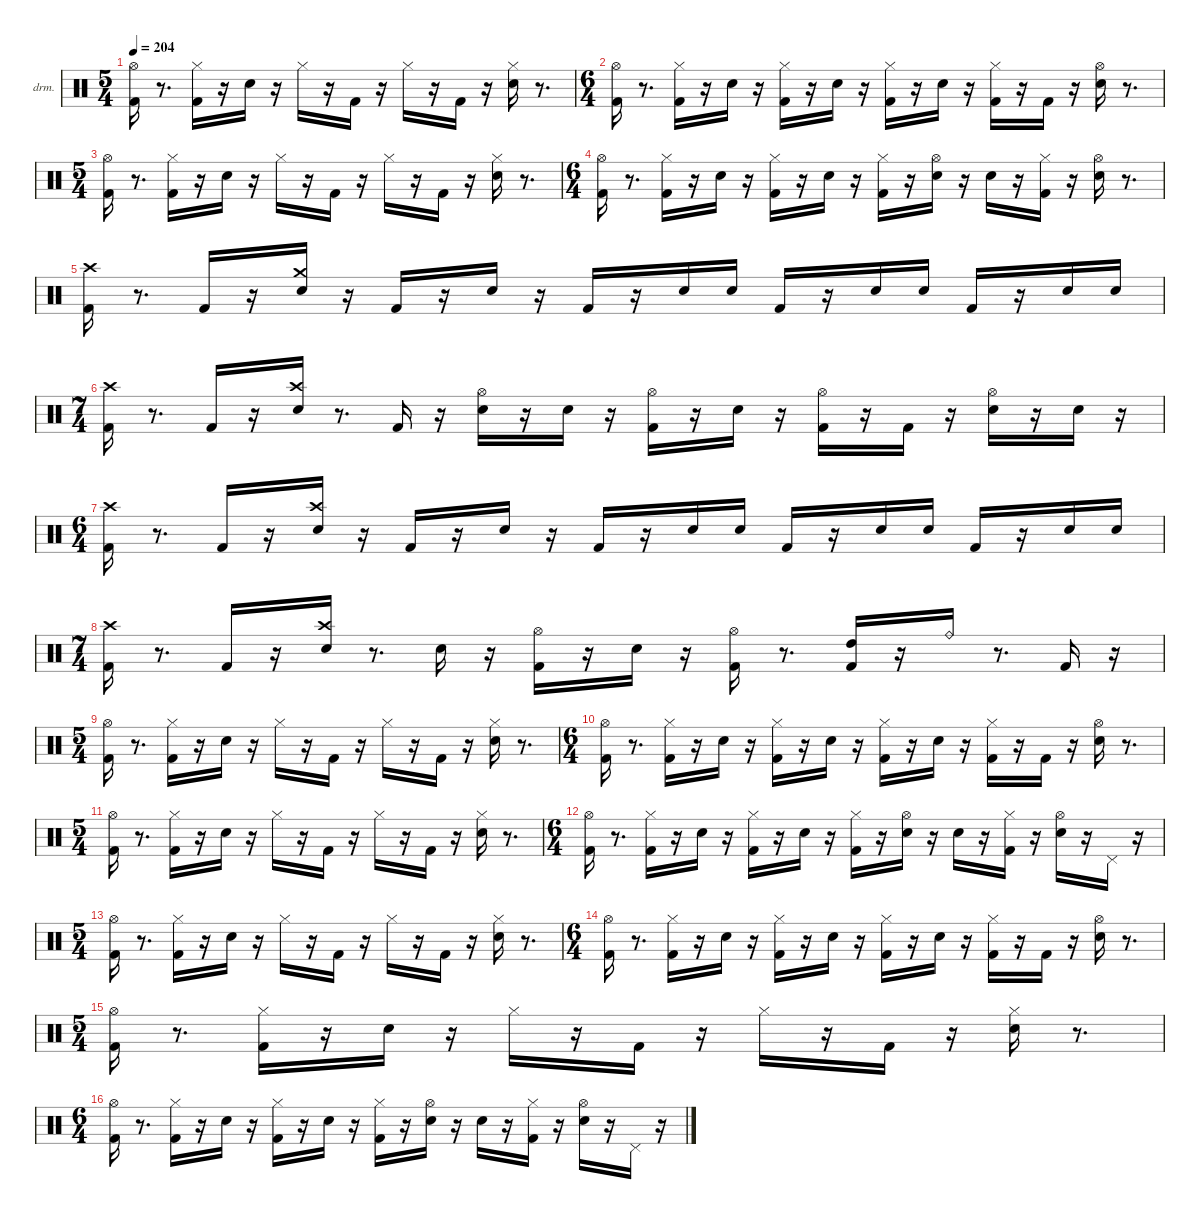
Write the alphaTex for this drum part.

\hideDynamics
\bracketExtendMode nobrackets
\firstSystemTrackNameOrientation horizontal
\otherSystemsTrackNameOrientation horizontal
\track ("drums" "drm.") {instrument percussion}
\staff {score}
\articulation defaults
\ts (5 4)
\tempo 204
\clef neutral
\ks aminor
("Kick (hit) 2" "Hi-Hat (open)"{acc #}).16{dy ff beam Down} r.8{d beam Down} ("Kick (hit) 2" "Hi-Hat (closed)"{acc #}).16{beam Down} r.16{beam Down} "Snare (hit) 2".16{dy f beam Down} r.16{beam Down} "Hi-Hat (closed)"{acc #}.16{dy ff beam Down} r.16{beam Down} "Kick (hit) 2".16{beam Up} r.16{beam Up} "Hi-Hat (closed)"{acc #}.16{dy f beam Down} r.16{beam Down} "Kick (hit) 2".16{dy ff beam Up} r.16{beam Up} ("Snare (hit) 2" "Hi-Hat (closed)"{acc #}).16{dy f beam Down} r.8{d beam Down} |
\ts (6 4)
("Kick (hit) 2" "Hi-Hat (open)"{acc #}).16{dy ff beam Down} r.8{d beam Down} ("Kick (hit) 2" "Hi-Hat (closed)"{acc #}).16{beam Down} r.16{beam Down} "Snare (hit) 2".16{dy f beam Down} r.16{beam Down} ("Kick (hit) 2" "Hi-Hat (closed)"{acc #}).16{dy ff beam Down} r.16{beam Down} "Snare (hit) 2".16{beam Down} r.16{beam Down} ("Kick (hit) 2" "Hi-Hat (closed)"{acc #}).16{beam Down} r.16{beam Down} "Snare (hit) 2".16{dy mf beam Down} r.16{beam Down} ("Kick (hit) 2" "Hi-Hat (closed)"{acc #}).16{dy f beam Down} r.16{beam Down} "Kick (hit) 2".16{dy ff beam Up} r.16{beam Up} ("Snare (hit) 2" "Hi-Hat (open)"{acc #}).16{beam Down} r.8{d beam Down} |
\ts (5 4)
("Kick (hit) 2" "Hi-Hat (open)"{acc #}).16{beam Down} r.8{d beam Down} ("Kick (hit) 2" "Hi-Hat (closed)"{acc #}).16{beam Down} r.16{beam Down} "Snare (hit) 2".16{dy f beam Down} r.16{beam Down} "Hi-Hat (closed)"{acc #}.16{dy ff beam Down} r.16{beam Down} "Kick (hit) 2".16{beam Up} r.16{beam Up} "Hi-Hat (closed)"{acc #}.16{dy f beam Down} r.16{beam Down} "Kick (hit) 2".16{dy ff beam Up} r.16{beam Up} ("Snare (hit) 2" "Hi-Hat (closed)"{acc #}).16{beam Down} r.8{d beam Down} |
\ts (6 4)
("Kick (hit) 2" "Hi-Hat (open)"{acc #}).16{beam Down} r.8{d beam Down} ("Kick (hit) 2" "Hi-Hat (closed)"{acc #}).16{beam Down} r.16{beam Down} "Snare (hit) 2".16{dy f beam Down} r.16{beam Down} ("Kick (hit) 2" "Hi-Hat (closed)"{acc #}).16{dy ff beam Down} r.16{beam Down} "Snare (hit) 2".16{beam Down} r.16{beam Down} ("Kick (hit) 2" "Hi-Hat (closed)"{acc #}).16{beam Down} r.16{beam Down} ("Snare (hit) 2" "Hi-Hat (open)"{acc #}).16{beam Down} r.16{beam Down} "Snare (hit) 2".16{dy mf beam Down} r.16{beam Down} ("Kick (hit) 2" "Hi-Hat (closed)"{acc #}).16{dy ff beam Down} r.16{beam Down} ("Snare (hit) 2" "Hi-Hat (open)"{acc #}).16{beam Down} r.8{d beam Down} |
("Kick (hit) 2" "Crash high (hit)"{acc #}).16{beam Down} r.8{d beam Down} "Kick (hit) 2".16{beam Up} r.16{beam Up} ("Snare (hit) 2" "Crash medium (hit)").16{dy f beam Down} r.16{beam Down} "Kick (hit) 2".16{dy ff beam Up} r.16{beam Up} "Snare (hit) 2".16{beam Down} r.16{beam Down} "Kick (hit) 2".16{beam Up} r.16{beam Up} "Snare (hit) 2".16{dy f beam Up} "Snare (hit) 2".16{dy p beam Up} "Kick (hit) 2".16{dy ff beam Up} r.16{beam Up} "Snare (hit) 2".16{dy f beam Up} "Snare (hit) 2".16{dy p beam Up} "Kick (hit) 2".16{dy ff beam Up} r.16{beam Up} "Snare (hit) 2".16{beam Down} "Snare (hit) 2".16{dy p beam Down} |
\ts (7 4)
("Kick (hit) 2" "Crash high (hit)"{acc #}).16{dy ff beam Down} r.8{d beam Down} "Kick (hit) 2".16{beam Up} r.16{beam Up} ("Snare (hit) 2" "Crash high (hit)"{acc #}).16{dy f beam Down} r.8{d beam Down} "Kick (hit) 2".16{dy ff beam Up} r.16{beam Up} ("Snare (hit) 2" "Hi-Hat (open)"{acc #}).16{beam Down} r.16{beam Down} "Snare (hit) 2".16{dy pp beam Down} r.16{beam Down} ("Kick (hit) 2" "Hi-Hat (open)"{acc #}).16{dy ff beam Down} r.16{beam Down} "Snare (hit) 2".16{beam Down} r.16{beam Down} ("Kick (hit) 2" "Hi-Hat (open)"{acc #}).16{dy f beam Down} r.16{beam Down} "Kick (hit) 2".16{dy fff beam Up} r.16{beam Up} ("Snare (hit) 2" "Hi-Hat (open)"{acc #}).16{dy ff beam Down} r.16{beam Down} "Snare (hit) 2".16{dy mf beam Down} r.16{beam Down} |
\ts (6 4)
("Kick (hit) 2" "Crash high (hit)"{acc #}).16{dy ff beam Down} r.8{d beam Down} "Kick (hit) 2".16{beam Up} r.16{beam Up} ("Snare (hit) 2" "Crash high (hit)"{acc #}).16{dy f beam Down} r.16{beam Down} "Kick (hit) 2".16{dy ff beam Up} r.16{beam Up} "Snare (hit) 2".16{beam Down} r.16{beam Down} "Kick (hit) 2".16{beam Up} r.16{beam Up} "Snare (hit) 2".16{dy f beam Up} "Snare (hit) 2".16{dy pp beam Up} "Kick (hit) 2".16{dy ff beam Up} r.16{beam Up} "Snare (hit) 2".16{dy f beam Up} "Snare (hit) 2".16{dy pp beam Up} "Kick (hit) 2".16{dy ff beam Up} r.16{beam Up} "Snare (hit) 2".16{beam Down} "Snare (hit) 2".16{dy pp beam Down} |
\ts (7 4)
("Kick (hit) 2" "Crash high (hit)"{acc #}).16{dy ff beam Down} r.8{d beam Down} "Kick (hit) 2".16{dy f beam Up} r.16{beam Up} ("Snare (hit) 2" "Crash high (hit)"{acc #}).16{dy ff beam Down} r.8{d beam Down} "Snare (hit) 2".16{beam Down} r.16{beam Down} ("Kick (hit) 2" "Hi-Hat (open)"{acc #}).16{beam Down} r.16{beam Down} "Snare (hit) 2".16{beam Down} r.16{beam Down} ("Kick (hit) 2" "Hi-Hat (open)"{acc #}).16{beam Down} r.8{d beam Down} ("Kick (hit) 2" "High Tom (hit)").16{dy f beam Up} r.16{beam Up} "Ride (bell)".16{dy ff beam Down} r.8{d beam Down} "Kick (hit) 2".16{dy mp beam Up} r.16{beam Up} |
\ts (5 4)
("Kick (hit) 2" "Hi-Hat (open)"{acc #}).16{dy fff beam Down} r.8{d beam Down} ("Kick (hit) 2" "Hi-Hat (closed)"{acc #}).16{dy ff beam Down} r.16{beam Down} "Snare (hit) 2".16{dy f beam Down} r.16{beam Down} "Hi-Hat (closed)"{acc #}.16{dy ff beam Down} r.16{beam Down} "Kick (hit) 2".16{beam Up} r.16{beam Up} "Hi-Hat (closed)"{acc #}.16{dy f beam Down} r.16{beam Down} "Kick (hit) 2".16{dy ff beam Up} r.16{beam Up} ("Snare (hit) 2" "Hi-Hat (closed)"{acc #}).16{dy f beam Down} r.8{d beam Down} |
\ts (6 4)
("Kick (hit) 2" "Hi-Hat (open)"{acc #}).16{dy ff beam Down} r.8{d beam Down} ("Kick (hit) 2" "Hi-Hat (closed)"{acc #}).16{beam Down} r.16{beam Down} "Snare (hit) 2".16{dy f beam Down} r.16{beam Down} ("Kick (hit) 2" "Hi-Hat (closed)"{acc #}).16{dy ff beam Down} r.16{beam Down} "Snare (hit) 2".16{beam Down} r.16{beam Down} ("Kick (hit) 2" "Hi-Hat (closed)"{acc #}).16{beam Down} r.16{beam Down} "Snare (hit) 2".16{dy mf beam Down} r.16{beam Down} ("Kick (hit) 2" "Hi-Hat (closed)"{acc #}).16{dy f beam Down} r.16{beam Down} "Kick (hit) 2".16{dy ff beam Up} r.16{beam Up} ("Snare (hit) 2" "Hi-Hat (open)"{acc #}).16{beam Down} r.8{d beam Down} |
\ts (5 4)
("Kick (hit) 2" "Hi-Hat (open)"{acc #}).16{beam Down} r.8{d beam Down} ("Kick (hit) 2" "Hi-Hat (closed)"{acc #}).16{beam Down} r.16{beam Down} "Snare (hit) 2".16{dy f beam Down} r.16{beam Down} "Hi-Hat (closed)"{acc #}.16{dy ff beam Down} r.16{beam Down} "Kick (hit) 2".16{beam Up} r.16{beam Up} "Hi-Hat (closed)"{acc #}.16{beam Down} r.16{beam Down} "Kick (hit) 2".16{beam Up} r.16{beam Up} ("Snare (hit) 2" "Hi-Hat (closed)"{acc #}).16{beam Down} r.8{d beam Down} |
\ts (6 4)
("Kick (hit) 2" "Hi-Hat (open)"{acc #}).16{beam Down} r.8{d beam Down} ("Kick (hit) 2" "Hi-Hat (closed)"{acc #}).16{beam Down} r.16{beam Down} "Snare (hit) 2".16{dy f beam Down} r.16{beam Down} ("Kick (hit) 2" "Hi-Hat (closed)"{acc #}).16{dy ff beam Down} r.16{beam Down} "Snare (hit) 2".16{beam Down} r.16{beam Down} ("Kick (hit) 2" "Hi-Hat (closed)"{acc #}).16{dy f beam Down} r.16{beam Down} ("Snare (hit) 2" "Hi-Hat (open)"{acc #}).16{dy ff beam Down} r.16{beam Down} "Snare (hit) 2".16{dy mf beam Down} r.16{beam Down} ("Kick (hit) 2" "Hi-Hat (closed)"{acc #}).16{dy ff beam Down} r.16{beam Down} ("Snare (hit) 2" "Hi-Hat (open)"{acc #}).16{beam Down} r.16{beam Down} "Pedal Hi-Hat (hit)"{acc #}.16{dy f beam Up} r.16{beam Up} |
\ts (5 4)
("Kick (hit) 2" "Hi-Hat (open)"{acc #}).16{dy ff beam Down} r.8{d beam Down} ("Kick (hit) 2" "Hi-Hat (closed)"{acc #}).16{beam Down} r.16{beam Down} "Snare (hit) 2".16{dy f beam Down} r.16{beam Down} "Hi-Hat (closed)"{acc #}.16{dy ff beam Down} r.16{beam Down} "Kick (hit) 2".16{beam Up} r.16{beam Up} "Hi-Hat (closed)"{acc #}.16{dy f beam Down} r.16{beam Down} "Kick (hit) 2".16{dy ff beam Up} r.16{beam Up} ("Snare (hit) 2" "Hi-Hat (closed)"{acc #}).16{dy f beam Down} r.8{d beam Down} |
\ts (6 4)
("Kick (hit) 2" "Hi-Hat (open)"{acc #}).16{dy ff beam Down} r.8{d beam Down} ("Kick (hit) 2" "Hi-Hat (closed)"{acc #}).16{beam Down} r.16{beam Down} "Snare (hit) 2".16{dy f beam Down} r.16{beam Down} ("Kick (hit) 2" "Hi-Hat (closed)"{acc #}).16{dy ff beam Down} r.16{beam Down} "Snare (hit) 2".16{beam Down} r.16{beam Down} ("Kick (hit) 2" "Hi-Hat (closed)"{acc #}).16{beam Down} r.16{beam Down} "Snare (hit) 2".16{dy mf beam Down} r.16{beam Down} ("Kick (hit) 2" "Hi-Hat (closed)"{acc #}).16{dy f beam Down} r.16{beam Down} "Kick (hit) 2".16{dy ff beam Up} r.16{beam Up} ("Snare (hit) 2" "Hi-Hat (open)"{acc #}).16{beam Down} r.8{d beam Down} |
\ts (5 4)
("Kick (hit) 2" "Hi-Hat (open)"{acc #}).16{beam Down} r.8{d beam Down} ("Kick (hit) 2" "Hi-Hat (closed)"{acc #}).16{beam Down} r.16{beam Down} "Snare (hit) 2".16{dy f beam Down} r.16{beam Down} "Hi-Hat (closed)"{acc #}.16{dy ff beam Down} r.16{beam Down} "Kick (hit) 2".16{beam Up} r.16{beam Up} "Hi-Hat (closed)"{acc #}.16{dy f beam Down} r.16{beam Down} "Kick (hit) 2".16{dy ff beam Up} r.16{beam Up} ("Snare (hit) 2" "Hi-Hat (closed)"{acc #}).16{beam Down} r.8{d beam Down} |
\ts (6 4)
("Kick (hit) 2" "Hi-Hat (open)"{acc #}).16{beam Down} r.8{d beam Down} ("Kick (hit) 2" "Hi-Hat (closed)"{acc #}).16{beam Down} r.16{beam Down} "Snare (hit) 2".16{dy f beam Down} r.16{beam Down} ("Kick (hit) 2" "Hi-Hat (closed)"{acc #}).16{dy ff beam Down} r.16{beam Down} "Snare (hit) 2".16{beam Down} r.16{beam Down} ("Kick (hit) 2" "Hi-Hat (closed)"{acc #}).16{beam Down} r.16{beam Down} ("Snare (hit) 2" "Hi-Hat (open)"{acc #}).16{beam Down} r.16{beam Down} "Snare (hit) 2".16{dy mf beam Down} r.16{beam Down} ("Kick (hit) 2" "Hi-Hat (closed)"{acc #}).16{dy ff beam Down} r.16{beam Down} ("Snare (hit) 2" "Hi-Hat (open)"{acc #}).16{beam Down} r.16{beam Down} "Pedal Hi-Hat (hit)"{acc #}.16{dy mf beam Up} r.16{beam Up}
